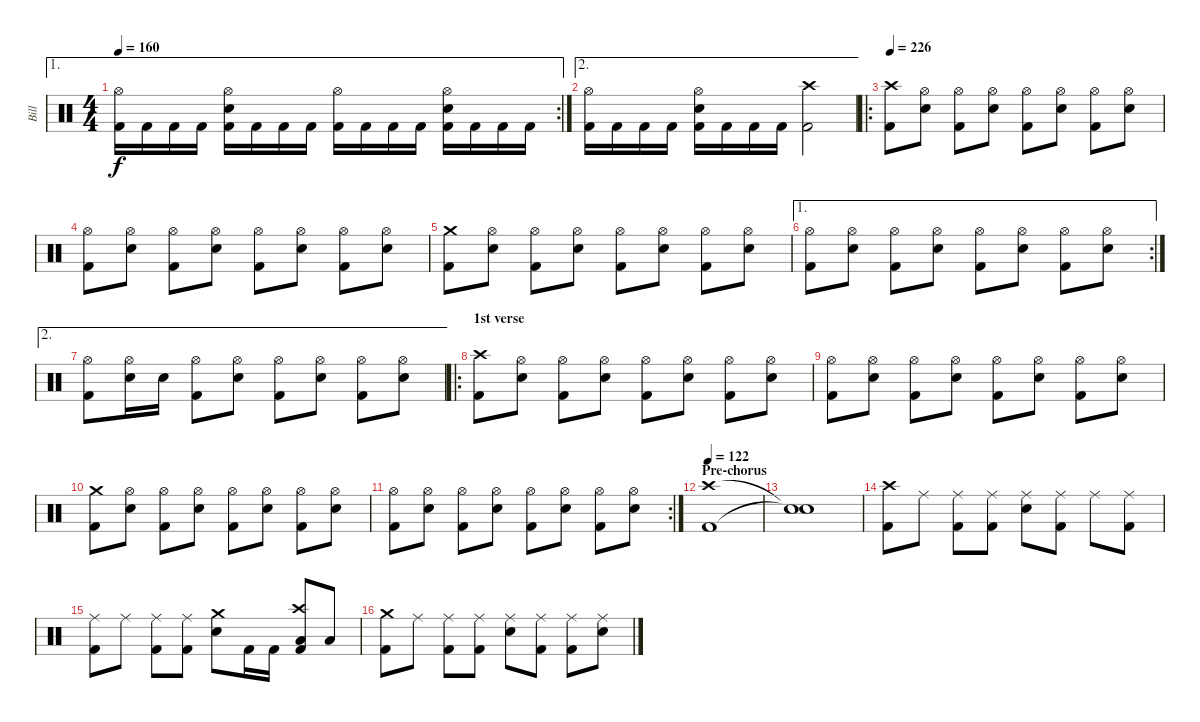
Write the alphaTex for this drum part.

\track ("Bill" "Bill") {instrument percussion}
\staff {score}
\articulation defaults
\ae 1
\rc 2
\ts (4 4)
\tempo 160
\clef neutral
\ks c
("Hi-Hat (open)" "Kick (hit) 2").16{dy f} "Kick (hit) 2".16 "Kick (hit) 2".16 "Kick (hit) 2".16 ("Hi-Hat (open)" "Electric Snare (hit)" "Kick (hit) 2").16 "Kick (hit) 2".16 "Kick (hit) 2".16 "Kick (hit) 2".16 ("Hi-Hat (open)" "Kick (hit) 2").16 "Kick (hit) 2".16 "Kick (hit) 2".16 "Kick (hit) 2".16 ("Hi-Hat (open)" "Electric Snare (hit)" "Kick (hit) 2").16 "Kick (hit) 2".16 "Kick (hit) 2".16 "Kick (hit) 2".16 |
\ae 2
("Hi-Hat (open)" "Kick (hit) 2").16 "Kick (hit) 2".16 "Kick (hit) 2".16 "Kick (hit) 2".16 ("Hi-Hat (open)" "Electric Snare (hit)" "Kick (hit) 2").16 "Kick (hit) 2".16 "Kick (hit) 2".16 "Kick (hit) 2".16 ("Crash high (hit)" "Kick (hit) 2").2 |
\ro
\tempo 226
("Crash high (hit)" "Kick (hit) 2").8 ("Hi-Hat (open)" "Electric Snare (hit)").8 ("Hi-Hat (open)" "Kick (hit) 2").8 ("Hi-Hat (open)" "Electric Snare (hit)").8 ("Hi-Hat (open)" "Kick (hit) 2").8 ("Hi-Hat (open)" "Electric Snare (hit)").8 ("Hi-Hat (open)" "Kick (hit) 2").8 ("Hi-Hat (open)" "Electric Snare (hit)").8 |
("Hi-Hat (open)" "Kick (hit) 2").8 ("Hi-Hat (open)" "Electric Snare (hit)").8 ("Hi-Hat (open)" "Kick (hit) 2").8 ("Hi-Hat (open)" "Electric Snare (hit)").8 ("Hi-Hat (open)" "Kick (hit) 2").8 ("Hi-Hat (open)" "Electric Snare (hit)").8 ("Hi-Hat (open)" "Kick (hit) 2").8 ("Hi-Hat (open)" "Electric Snare (hit)").8 |
("Crash medium (hit)" "Kick (hit) 2").8 ("Hi-Hat (open)" "Electric Snare (hit)").8 ("Hi-Hat (open)" "Kick (hit) 2").8 ("Hi-Hat (open)" "Electric Snare (hit)").8 ("Hi-Hat (open)" "Kick (hit) 2").8 ("Hi-Hat (open)" "Electric Snare (hit)").8 ("Hi-Hat (open)" "Kick (hit) 2").8 ("Hi-Hat (open)" "Electric Snare (hit)").8 |
\ae 1
\rc 2
("Hi-Hat (open)" "Kick (hit) 2").8 ("Hi-Hat (open)" "Electric Snare (hit)").8 ("Hi-Hat (open)" "Kick (hit) 2").8 ("Hi-Hat (open)" "Electric Snare (hit)").8 ("Hi-Hat (open)" "Kick (hit) 2").8 ("Hi-Hat (open)" "Electric Snare (hit)").8 ("Hi-Hat (open)" "Kick (hit) 2").8 ("Hi-Hat (open)" "Electric Snare (hit)").8 |
\ae 2
("Hi-Hat (open)" "Kick (hit) 2").8 ("Hi-Hat (open)" "Electric Snare (hit)").16 "Electric Snare (hit)".16 ("Hi-Hat (open)" "Kick (hit) 2").8 ("Hi-Hat (open)" "Electric Snare (hit)").8 ("Hi-Hat (open)" "Kick (hit) 2").8 ("Hi-Hat (open)" "Electric Snare (hit)").8 ("Hi-Hat (open)" "Kick (hit) 2").8 ("Hi-Hat (open)" "Electric Snare (hit)").8 |
\ro
\section ("" "1st verse")
("Crash high (hit)" "Kick (hit) 2").8 ("Hi-Hat (open)" "Electric Snare (hit)").8 ("Hi-Hat (open)" "Kick (hit) 2").8 ("Hi-Hat (open)" "Electric Snare (hit)").8 ("Hi-Hat (open)" "Kick (hit) 2").8 ("Hi-Hat (open)" "Electric Snare (hit)").8 ("Hi-Hat (open)" "Kick (hit) 2").8 ("Hi-Hat (open)" "Electric Snare (hit)").8 |
("Hi-Hat (open)" "Kick (hit) 2").8 ("Hi-Hat (open)" "Electric Snare (hit)").8 ("Hi-Hat (open)" "Kick (hit) 2").8 ("Hi-Hat (open)" "Electric Snare (hit)").8 ("Hi-Hat (open)" "Kick (hit) 2").8 ("Hi-Hat (open)" "Electric Snare (hit)").8 ("Hi-Hat (open)" "Kick (hit) 2").8 ("Hi-Hat (open)" "Electric Snare (hit)").8 |
("Crash medium (hit)" "Kick (hit) 2").8 ("Hi-Hat (open)" "Electric Snare (hit)").8 ("Hi-Hat (open)" "Kick (hit) 2").8 ("Hi-Hat (open)" "Electric Snare (hit)").8 ("Hi-Hat (open)" "Kick (hit) 2").8 ("Hi-Hat (open)" "Electric Snare (hit)").8 ("Hi-Hat (open)" "Kick (hit) 2").8 ("Hi-Hat (open)" "Electric Snare (hit)").8 |
\rc 2
("Hi-Hat (open)" "Kick (hit) 2").8 ("Hi-Hat (open)" "Electric Snare (hit)").8 ("Hi-Hat (open)" "Kick (hit) 2").8 ("Hi-Hat (open)" "Electric Snare (hit)").8 ("Hi-Hat (open)" "Kick (hit) 2").8 ("Hi-Hat (open)" "Electric Snare (hit)").8 ("Hi-Hat (open)" "Kick (hit) 2").8 ("Hi-Hat (open)" "Electric Snare (hit)").8 |
\section ("" "Pre-chorus")
\tempo 122
("Crash high (hit)" "Kick (hit) 2").1 |
("Snare (hit)"{t} "Snare (hit)"{t}).1 |
("Crash high (hit)" "Kick (hit) 2").8 "Ride (middle)".8 ("Ride (middle)" "Kick (hit) 2").8 ("Ride (middle)" "Kick (hit) 2").8 ("Ride (middle)" "Electric Snare (hit)").8 ("Ride (middle)" "Kick (hit) 2").8 "Ride (middle)".8 ("Ride (middle)" "Kick (hit) 2").8 |
("Ride (middle)" "Kick (hit) 2").8 "Ride (middle)".8 ("Ride (middle)" "Kick (hit) 2").8 ("Ride (middle)" "Kick (hit) 2").8 ("Crash medium (hit)" "Electric Snare (hit)").8 "Kick (hit) 2".16 "Kick (hit) 2".16 ("Crash high (hit)" "Low Tom (hit)" "Kick (hit) 2").8 "Low Floor Tom (hit)".8 |
("Crash medium (hit)" "Kick (hit) 2").8 "Ride (middle)".8 ("Ride (middle)" "Kick (hit) 2").8 ("Ride (middle)" "Kick (hit) 2").8 ("Ride (middle)" "Electric Snare (hit)").8 ("Ride (middle)" "Kick (hit) 2").8 ("Ride (middle)" "Kick (hit) 2").8 ("Ride (middle)" "Electric Snare (hit)").8
